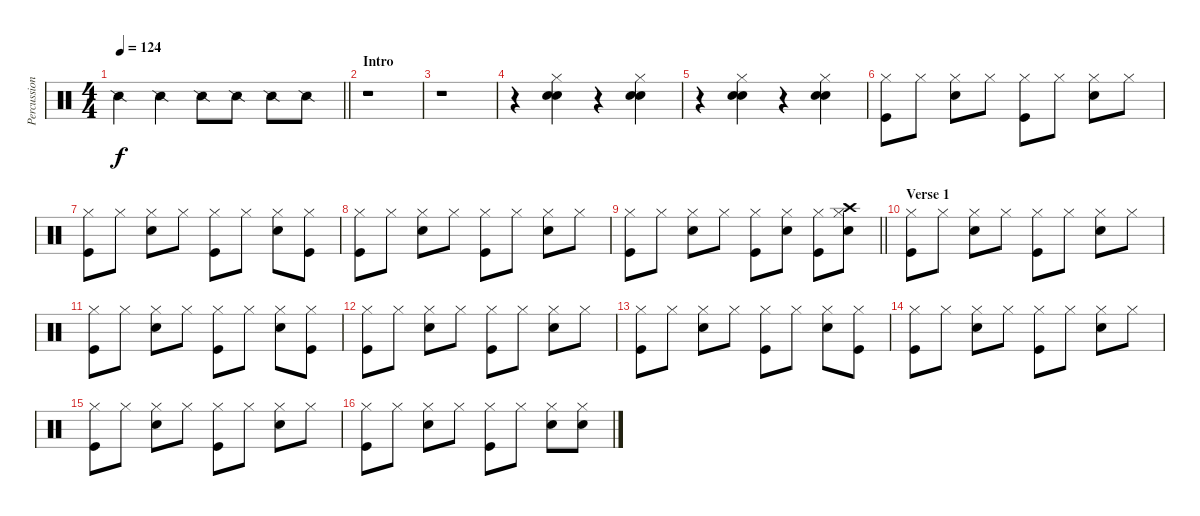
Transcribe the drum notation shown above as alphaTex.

\track ("Percussion" "Percussion") {solo instrument percussion}
\staff {score}
\articulation defaults
\ts (4 4)
\tempo 124
\clef neutral
\barLineRight lightlight
\ks c "Snare (side stick) 2".4{dy f} "Snare (side stick) 2".4 "Snare (side stick) 2".8 "Snare (side stick) 2".8 "Snare (side stick) 2".8 "Snare (side stick) 2".8
|
\section ("" "Intro")
r.1 |
r.1 |
r.4 ("Snare (hit) 2" "Electric Snare (hit)" "Hi-Hat (closed)").4 r.4 ("Snare (hit) 2" "Electric Snare (hit)" "Hi-Hat (closed)").4 |
r.4 ("Snare (hit) 2" "Electric Snare (hit)" "Hi-Hat (closed)").4 r.4 ("Snare (hit) 2" "Electric Snare (hit)" "Hi-Hat (closed)").4 |
("Hi-Hat (closed)" "Kick (hit)").8 "Hi-Hat (closed)".8 ("Hi-Hat (closed)" "Electric Snare (hit)").8 "Hi-Hat (closed)".8 ("Hi-Hat (closed)" "Kick (hit)").8 "Hi-Hat (closed)".8 ("Hi-Hat (closed)" "Electric Snare (hit)").8 "Hi-Hat (closed)".8 |
("Hi-Hat (closed)" "Kick (hit)").8 "Hi-Hat (closed)".8 ("Hi-Hat (closed)" "Electric Snare (hit)").8 "Hi-Hat (closed)".8 ("Hi-Hat (closed)" "Kick (hit)").8 "Hi-Hat (closed)".8 ("Hi-Hat (closed)" "Electric Snare (hit)").8 ("Hi-Hat (closed)" "Kick (hit)").8 |
("Hi-Hat (closed)" "Kick (hit)").8 "Hi-Hat (closed)".8 ("Hi-Hat (closed)" "Electric Snare (hit)").8 "Hi-Hat (closed)".8 ("Hi-Hat (closed)" "Kick (hit)").8 "Hi-Hat (closed)".8 ("Hi-Hat (closed)" "Electric Snare (hit)").8 "Hi-Hat (closed)".8 |
\barLineRight lightlight
("Hi-Hat (closed)" "Kick (hit)").8 "Hi-Hat (closed)".8 ("Hi-Hat (closed)" "Electric Snare (hit)").8 "Hi-Hat (closed)".8 ("Hi-Hat (closed)" "Kick (hit)").8 ("Hi-Hat (closed)" "Electric Snare (hit)").8 ("Hi-Hat (closed)" "Kick (hit)").8 ("Hi-Hat (closed)" "Crash high (hit)" "Electric Snare (hit)").8 |
\section ("" "Verse 1")
("Hi-Hat (closed)" "Kick (hit)").8 "Hi-Hat (closed)".8 ("Hi-Hat (closed)" "Electric Snare (hit)").8 "Hi-Hat (closed)".8 ("Hi-Hat (closed)" "Kick (hit)").8 "Hi-Hat (closed)".8 ("Hi-Hat (closed)" "Electric Snare (hit)").8 "Hi-Hat (closed)".8 |
("Hi-Hat (closed)" "Kick (hit)").8 "Hi-Hat (closed)".8 ("Hi-Hat (closed)" "Electric Snare (hit)").8 "Hi-Hat (closed)".8 ("Hi-Hat (closed)" "Kick (hit)").8 "Hi-Hat (closed)".8 ("Hi-Hat (closed)" "Electric Snare (hit)").8 ("Hi-Hat (closed)" "Kick (hit)").8 |
("Hi-Hat (closed)" "Kick (hit)").8 "Hi-Hat (closed)".8 ("Hi-Hat (closed)" "Electric Snare (hit)").8 "Hi-Hat (closed)".8 ("Hi-Hat (closed)" "Kick (hit)").8 "Hi-Hat (closed)".8 ("Hi-Hat (closed)" "Electric Snare (hit)").8 "Hi-Hat (closed)".8 |
("Hi-Hat (closed)" "Kick (hit)").8 "Hi-Hat (closed)".8 ("Hi-Hat (closed)" "Electric Snare (hit)").8 "Hi-Hat (closed)".8 ("Hi-Hat (closed)" "Kick (hit)").8 "Hi-Hat (closed)".8 ("Hi-Hat (closed)" "Electric Snare (hit)").8 ("Hi-Hat (closed)" "Kick (hit)").8 |
("Hi-Hat (closed)" "Kick (hit)").8 "Hi-Hat (closed)".8 ("Hi-Hat (closed)" "Electric Snare (hit)").8 "Hi-Hat (closed)".8 ("Hi-Hat (closed)" "Kick (hit)").8 "Hi-Hat (closed)".8 ("Hi-Hat (closed)" "Electric Snare (hit)").8 "Hi-Hat (closed)".8 |
("Hi-Hat (closed)" "Kick (hit)").8 "Hi-Hat (closed)".8 ("Hi-Hat (closed)" "Electric Snare (hit)").8 "Hi-Hat (closed)".8 ("Hi-Hat (closed)" "Kick (hit)").8 "Hi-Hat (closed)".8 ("Hi-Hat (closed)" "Electric Snare (hit)").8 "Hi-Hat (closed)".8 |
("Hi-Hat (closed)" "Kick (hit)").8 "Hi-Hat (closed)".8 ("Hi-Hat (closed)" "Electric Snare (hit)").8 "Hi-Hat (closed)".8 ("Hi-Hat (closed)" "Kick (hit)").8 "Hi-Hat (closed)".8 ("Hi-Hat (closed)" "Electric Snare (hit)").8 ("Hi-Hat (closed)" "Electric Snare (hit)").8
